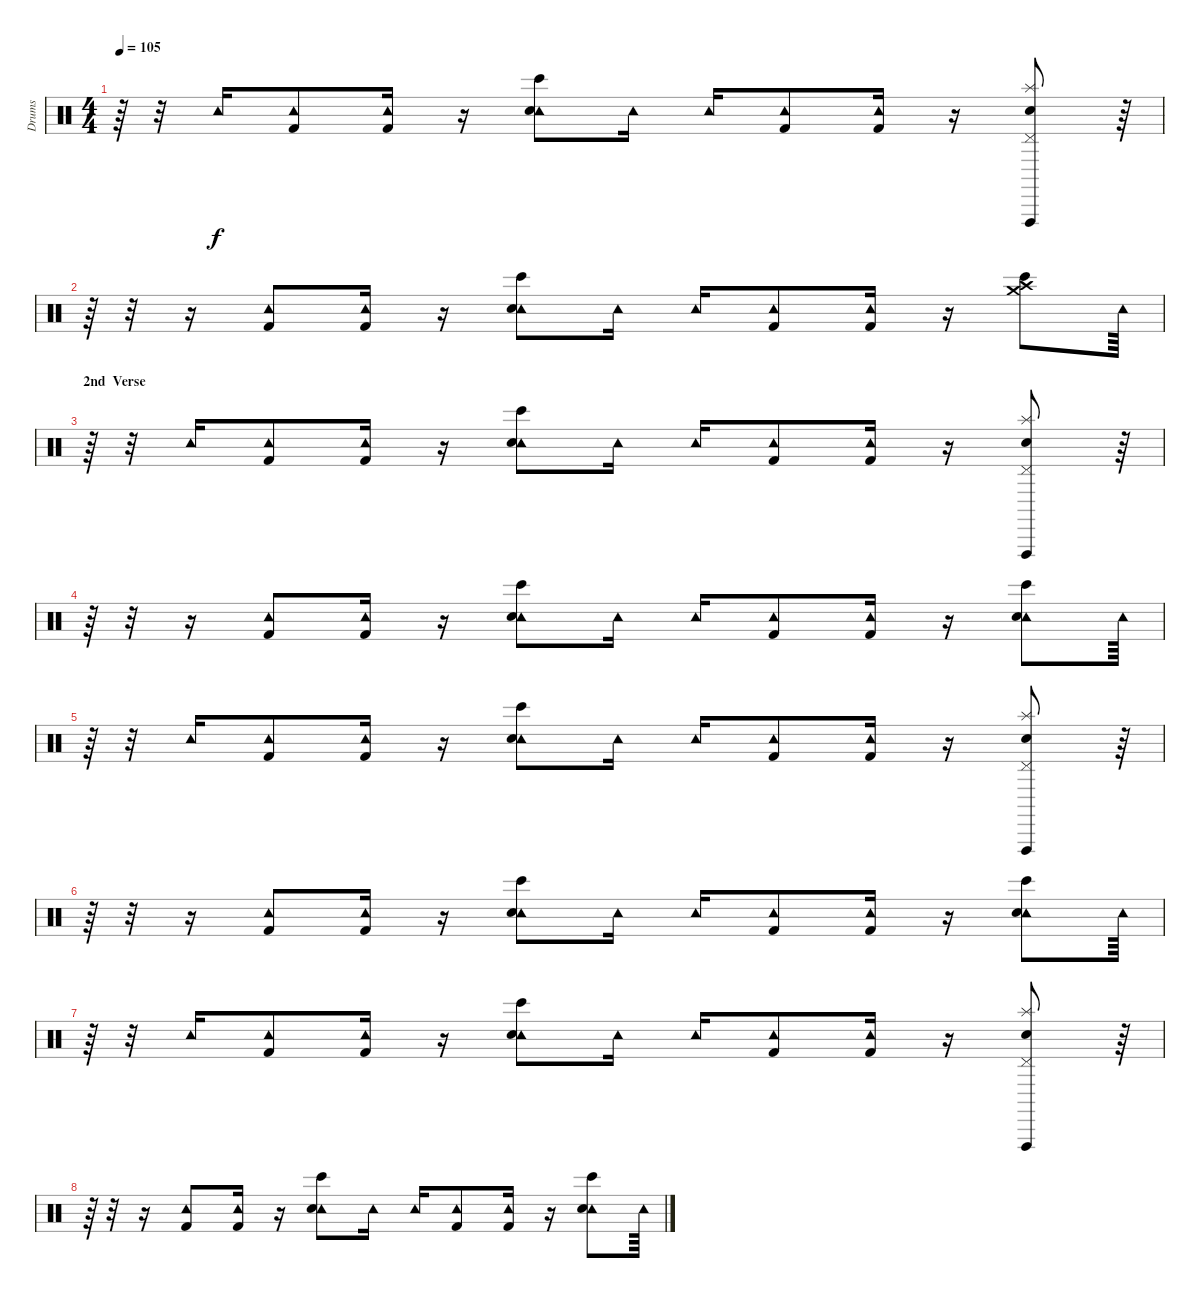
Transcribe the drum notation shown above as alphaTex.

\track ("Drums" "Drums") {instrument percussion}
\staff {score}
\articulation defaults
\ts (4 4)
\tempo 105
\clef neutral
\ks c
r.64{dy f} r.32 "Tambourine (hit)".16 ("Tambourine (hit)" "Kick (hit) 2").8 ("Tambourine (hit)" "Kick (hit) 2").16 r.16 ("Tambourine (hit)" "Electric Snare (hit)" "Bongo High (hit)").8 "Tambourine (hit)".16 "Tambourine (hit)".16 ("Tambourine (hit)" "Kick (hit) 2").8 ("Tambourine (hit)" "Kick (hit) 2").16 r.16 ("Splash (hit)" "Electric Snare (hit)" "Pedal Hi-Hat (hit)" "Vibraslap (hit)").8 r.64 |
r.64 r.32 r.16 ("Tambourine (hit)" "Kick (hit) 2").8 ("Tambourine (hit)" "Kick (hit) 2").16 r.16 ("Tambourine (hit)" "Electric Snare (hit)" "Bongo High (hit)").8 "Tambourine (hit)".16 "Tambourine (hit)".16 ("Tambourine (hit)" "Kick (hit) 2").8 ("Tambourine (hit)" "Kick (hit) 2").16 r.16 ("Crash high (hit)" "Bongo High (hit)" "Crash medium (hit)").8 "Tambourine (hit)".64 |
\section ("" "2nd  Verse")
r.64 r.32 "Tambourine (hit)".16 ("Tambourine (hit)" "Kick (hit) 2").8 ("Tambourine (hit)" "Kick (hit) 2").16 r.16 ("Tambourine (hit)" "Electric Snare (hit)" "Bongo High (hit)").8 "Tambourine (hit)".16 "Tambourine (hit)".16 ("Tambourine (hit)" "Kick (hit) 2").8 ("Tambourine (hit)" "Kick (hit) 2").16 r.16 ("Splash (hit)" "Electric Snare (hit)" "Pedal Hi-Hat (hit)" "Vibraslap (hit)").8 r.64 |
r.64 r.32 r.16 ("Tambourine (hit)" "Kick (hit) 2").8 ("Tambourine (hit)" "Kick (hit) 2").16 r.16 ("Tambourine (hit)" "Electric Snare (hit)" "Bongo High (hit)").8 "Tambourine (hit)".16 "Tambourine (hit)".16 ("Tambourine (hit)" "Kick (hit) 2").8 ("Tambourine (hit)" "Kick (hit) 2").16 r.16 ("Tambourine (hit)" "Electric Snare (hit)" "Bongo High (hit)").8 "Tambourine (hit)".64 |
r.64 r.32 "Tambourine (hit)".16 ("Tambourine (hit)" "Kick (hit) 2").8 ("Tambourine (hit)" "Kick (hit) 2").16 r.16 ("Tambourine (hit)" "Electric Snare (hit)" "Bongo High (hit)").8 "Tambourine (hit)".16 "Tambourine (hit)".16 ("Tambourine (hit)" "Kick (hit) 2").8 ("Tambourine (hit)" "Kick (hit) 2").16 r.16 ("Splash (hit)" "Electric Snare (hit)" "Pedal Hi-Hat (hit)" "Vibraslap (hit)").8 r.64 |
r.64 r.32 r.16 ("Tambourine (hit)" "Kick (hit) 2").8 ("Tambourine (hit)" "Kick (hit) 2").16 r.16 ("Tambourine (hit)" "Electric Snare (hit)" "Bongo High (hit)").8 "Tambourine (hit)".16 "Tambourine (hit)".16 ("Tambourine (hit)" "Kick (hit) 2").8 ("Tambourine (hit)" "Kick (hit) 2").16 r.16 ("Tambourine (hit)" "Electric Snare (hit)" "Bongo High (hit)").8 "Tambourine (hit)".64 |
r.64 r.32 "Tambourine (hit)".16 ("Tambourine (hit)" "Kick (hit) 2").8 ("Tambourine (hit)" "Kick (hit) 2").16 r.16 ("Tambourine (hit)" "Electric Snare (hit)" "Bongo High (hit)").8 "Tambourine (hit)".16 "Tambourine (hit)".16 ("Tambourine (hit)" "Kick (hit) 2").8 ("Tambourine (hit)" "Kick (hit) 2").16 r.16 ("Splash (hit)" "Electric Snare (hit)" "Pedal Hi-Hat (hit)" "Vibraslap (hit)").8 r.64 |
r.64 r.32 r.16 ("Tambourine (hit)" "Kick (hit) 2").8 ("Tambourine (hit)" "Kick (hit) 2").16 r.16 ("Tambourine (hit)" "Electric Snare (hit)" "Bongo High (hit)").8 "Tambourine (hit)".16 "Tambourine (hit)".16 ("Tambourine (hit)" "Kick (hit) 2").8 ("Tambourine (hit)" "Kick (hit) 2").16 r.16 ("Tambourine (hit)" "Electric Snare (hit)" "Bongo High (hit)").8 "Tambourine (hit)".64
